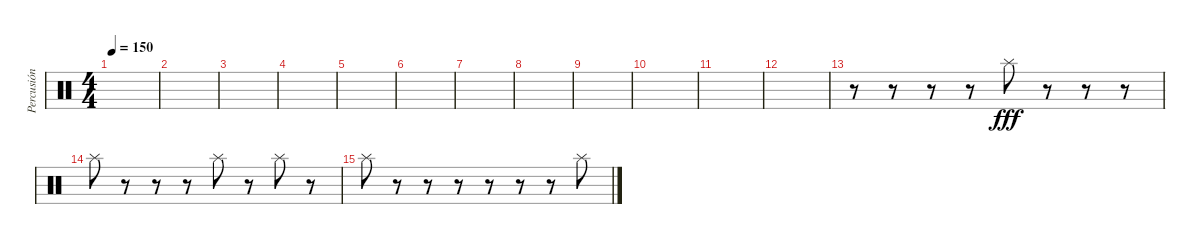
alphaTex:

\track ("Percusión" "Percusión") {instrument percussion}
\staff {score}
\articulation defaults
\ts (4 4)
\tempo 150
\clef neutral
\ks c
|
|
|
|
|
|
|
|
|
|
|
|
r.8 r.8 r.8 r.8 "Splash (hit)".8{dy fff} r.8 r.8 r.8 |
"Splash (hit)".8 r.8 r.8 r.8 "Splash (hit)".8 r.8 "Splash (hit)".8 r.8 |
"Splash (hit)".8 r.8 r.8 r.8 r.8 r.8 r.8 "Splash (hit)".8
